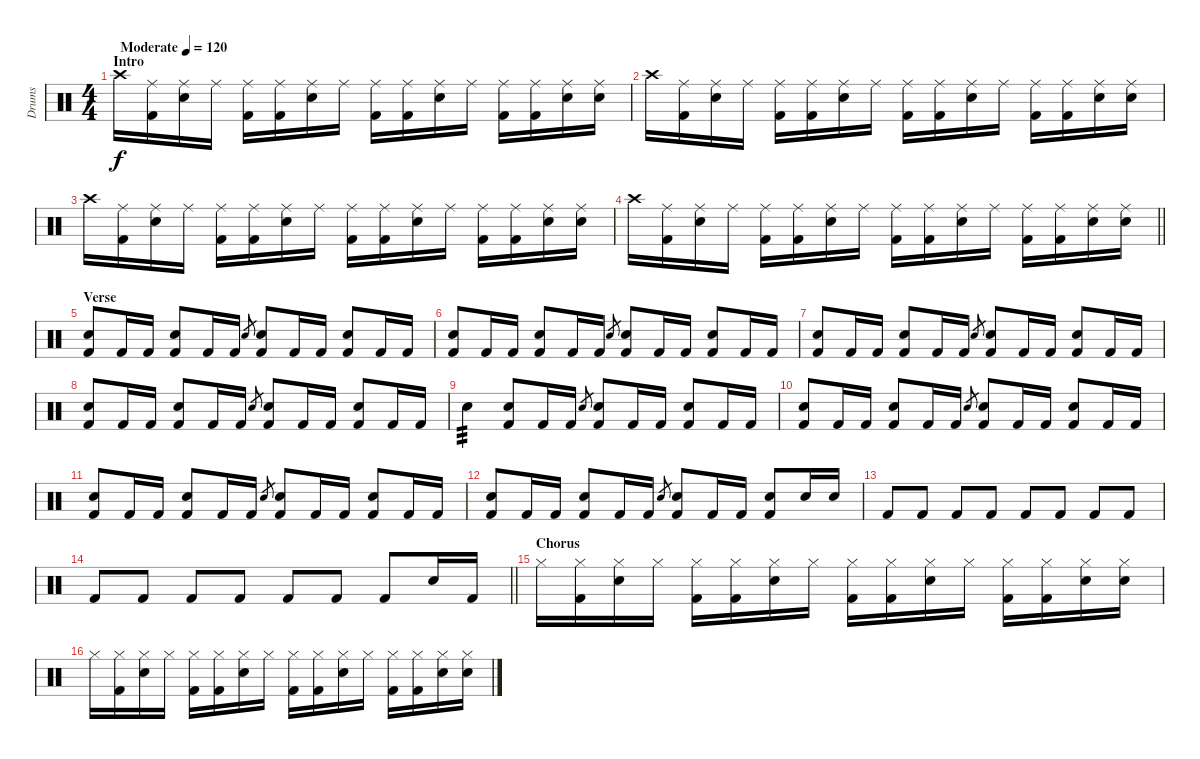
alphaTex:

\track ("Drums" "Drums") {instrument percussion}
\staff {score}
\articulation defaults
\ts (4 4)
\section ("" "Intro")
\tempo (120 "Moderate")
\clef neutral
\ks c "Crash high (hit)".16{dy f}
("Ride (middle)" "Kick (hit) 2").16 ("Ride (middle)" "Electric Snare (hit)").16 "Ride (middle)".16 ("Ride (middle)" "Kick (hit) 2").16 ("Ride (middle)" "Kick (hit) 2").16 ("Ride (middle)" "Electric Snare (hit)").16 "Ride (middle)".16 ("Ride (middle)" "Kick (hit) 2").16 ("Ride (middle)" "Kick (hit) 2").16 ("Ride (middle)" "Electric Snare (hit)").16 "Ride (middle)".16 ("Ride (middle)" "Kick (hit) 2").16 ("Ride (middle)" "Kick (hit) 2").16 ("Ride (middle)" "Electric Snare (hit)").16 ("Ride (middle)" "Electric Snare (hit)").16 |
"Crash high (hit)".16 ("Ride (middle)" "Kick (hit) 2").16 ("Ride (middle)" "Electric Snare (hit)").16 "Ride (middle)".16 ("Ride (middle)" "Kick (hit) 2").16 ("Ride (middle)" "Kick (hit) 2").16 ("Ride (middle)" "Electric Snare (hit)").16 "Ride (middle)".16 ("Ride (middle)" "Kick (hit) 2").16 ("Ride (middle)" "Kick (hit) 2").16 ("Ride (middle)" "Electric Snare (hit)").16 "Ride (middle)".16 ("Ride (middle)" "Kick (hit) 2").16 ("Ride (middle)" "Kick (hit) 2").16 ("Ride (middle)" "Electric Snare (hit)").16 ("Ride (middle)" "Electric Snare (hit)").16 |
"Crash high (hit)".16 ("Ride (middle)" "Kick (hit) 2").16 ("Ride (middle)" "Electric Snare (hit)").16 "Ride (middle)".16 ("Ride (middle)" "Kick (hit) 2").16 ("Ride (middle)" "Kick (hit) 2").16 ("Ride (middle)" "Electric Snare (hit)").16 "Ride (middle)".16 ("Ride (middle)" "Kick (hit) 2").16 ("Ride (middle)" "Kick (hit) 2").16 ("Ride (middle)" "Electric Snare (hit)").16 "Ride (middle)".16 ("Ride (middle)" "Kick (hit) 2").16 ("Ride (middle)" "Kick (hit) 2").16 ("Ride (middle)" "Electric Snare (hit)").16 ("Ride (middle)" "Electric Snare (hit)").16 |
\barLineRight lightlight "Crash high (hit)".16
("Ride (middle)" "Kick (hit) 2").16 ("Ride (middle)" "Electric Snare (hit)").16 "Ride (middle)".16 ("Ride (middle)" "Kick (hit) 2").16 ("Ride (middle)" "Kick (hit) 2").16 ("Ride (middle)" "Electric Snare (hit)").16 "Ride (middle)".16 ("Ride (middle)" "Kick (hit) 2").16 ("Ride (middle)" "Kick (hit) 2").16 ("Ride (middle)" "Electric Snare (hit)").16 "Ride (middle)".16 ("Ride (middle)" "Kick (hit) 2").16 ("Ride (middle)" "Kick (hit) 2").16 ("Ride (middle)" "Electric Snare (hit)").16 ("Ride (middle)" "Electric Snare (hit)").16 |
\section ("" "Verse")
("Electric Snare (hit)" "Kick (hit) 2").8 "Kick (hit) 2".16 "Kick (hit) 2".16 ("Electric Snare (hit)" "Kick (hit) 2").8 "Kick (hit) 2".16 "Kick (hit) 2".16 "Electric Snare (hit)".8{gr} ("Electric Snare (hit)" "Kick (hit) 2").8 "Kick (hit) 2".16 "Kick (hit) 2".16 ("Electric Snare (hit)" "Kick (hit) 2").8 "Kick (hit) 2".16 "Kick (hit) 2".16 |
("Electric Snare (hit)" "Kick (hit) 2").8 "Kick (hit) 2".16 "Kick (hit) 2".16 ("Electric Snare (hit)" "Kick (hit) 2").8 "Kick (hit) 2".16 "Kick (hit) 2".16 "Electric Snare (hit)".8{gr} ("Electric Snare (hit)" "Kick (hit) 2").8 "Kick (hit) 2".16 "Kick (hit) 2".16 ("Electric Snare (hit)" "Kick (hit) 2").8 "Kick (hit) 2".16 "Kick (hit) 2".16 |
("Electric Snare (hit)" "Kick (hit) 2").8 "Kick (hit) 2".16 "Kick (hit) 2".16 ("Electric Snare (hit)" "Kick (hit) 2").8 "Kick (hit) 2".16 "Kick (hit) 2".16 "Electric Snare (hit)".8{gr} ("Electric Snare (hit)" "Kick (hit) 2").8 "Kick (hit) 2".16 "Kick (hit) 2".16 ("Electric Snare (hit)" "Kick (hit) 2").8 "Kick (hit) 2".16 "Kick (hit) 2".16 |
("Electric Snare (hit)" "Kick (hit) 2").8 "Kick (hit) 2".16 "Kick (hit) 2".16 ("Electric Snare (hit)" "Kick (hit) 2").8 "Kick (hit) 2".16 "Kick (hit) 2".16 "Electric Snare (hit)".8{gr} ("Electric Snare (hit)" "Kick (hit) 2").8 "Kick (hit) 2".16 "Kick (hit) 2".16 ("Electric Snare (hit)" "Kick (hit) 2").8 "Kick (hit) 2".16 "Kick (hit) 2".16 |
"Electric Snare (hit)".4{tp 3} ("Electric Snare (hit)" "Kick (hit) 2").8 "Kick (hit) 2".16 "Kick (hit) 2".16 "Electric Snare (hit)".8{gr} ("Electric Snare (hit)" "Kick (hit) 2").8 "Kick (hit) 2".16 "Kick (hit) 2".16 ("Electric Snare (hit)" "Kick (hit) 2").8 "Kick (hit) 2".16 "Kick (hit) 2".16 |
("Electric Snare (hit)" "Kick (hit) 2").8 "Kick (hit) 2".16 "Kick (hit) 2".16 ("Electric Snare (hit)" "Kick (hit) 2").8 "Kick (hit) 2".16 "Kick (hit) 2".16 "Electric Snare (hit)".8{gr} ("Electric Snare (hit)" "Kick (hit) 2").8 "Kick (hit) 2".16 "Kick (hit) 2".16 ("Electric Snare (hit)" "Kick (hit) 2").8 "Kick (hit) 2".16 "Kick (hit) 2".16 |
("Electric Snare (hit)" "Kick (hit) 2").8 "Kick (hit) 2".16 "Kick (hit) 2".16 ("Electric Snare (hit)" "Kick (hit) 2").8 "Kick (hit) 2".16 "Kick (hit) 2".16 "Electric Snare (hit)".8{gr} ("Electric Snare (hit)" "Kick (hit) 2").8 "Kick (hit) 2".16 "Kick (hit) 2".16 ("Electric Snare (hit)" "Kick (hit) 2").8 "Kick (hit) 2".16 "Kick (hit) 2".16 |
("Electric Snare (hit)" "Kick (hit) 2").8 "Kick (hit) 2".16 "Kick (hit) 2".16 ("Electric Snare (hit)" "Kick (hit) 2").8 "Kick (hit) 2".16 "Kick (hit) 2".16 "Electric Snare (hit)".8{gr} ("Electric Snare (hit)" "Kick (hit) 2").8 "Kick (hit) 2".16 "Kick (hit) 2".16 ("Electric Snare (hit)" "Kick (hit) 2").8 "Snare (hit) 2".16 "Snare (hit) 2".16 |
"Kick (hit) 2".8 "Kick (hit) 2".8 "Kick (hit) 2".8 "Kick (hit) 2".8 "Kick (hit) 2".8 "Kick (hit) 2".8 "Kick (hit) 2".8 "Kick (hit) 2".8 |
\barLineRight lightlight "Kick (hit) 2".8 "Kick (hit) 2".8 "Kick (hit) 2".8 "Kick (hit) 2".8 "Kick (hit) 2".8 "Kick (hit) 2".8 "Kick (hit) 2".8 "Snare (hit) 2".16 "Kick (hit) 2".16
|
\section ("" "Chorus")
"Hi-Hat (closed)".16 ("Hi-Hat (closed)" "Kick (hit) 2").16 ("Hi-Hat (closed)" "Electric Snare (hit)").16 "Hi-Hat (closed)".16 ("Hi-Hat (closed)" "Kick (hit) 2").16 ("Hi-Hat (closed)" "Kick (hit) 2").16 ("Hi-Hat (closed)" "Electric Snare (hit)").16 "Hi-Hat (closed)".16 ("Hi-Hat (closed)" "Kick (hit) 2").16 ("Hi-Hat (closed)" "Kick (hit) 2").16 ("Hi-Hat (closed)" "Electric Snare (hit)").16 "Hi-Hat (closed)".16 ("Hi-Hat (closed)" "Kick (hit) 2").16 ("Hi-Hat (closed)" "Kick (hit) 2").16 ("Hi-Hat (closed)" "Electric Snare (hit)").16 ("Hi-Hat (closed)" "Electric Snare (hit)").16 |
"Hi-Hat (closed)".16 ("Hi-Hat (closed)" "Kick (hit) 2").16 ("Hi-Hat (closed)" "Electric Snare (hit)").16 "Hi-Hat (closed)".16 ("Hi-Hat (closed)" "Kick (hit) 2").16 ("Hi-Hat (closed)" "Kick (hit) 2").16 ("Hi-Hat (closed)" "Electric Snare (hit)").16 "Hi-Hat (closed)".16 ("Hi-Hat (closed)" "Kick (hit) 2").16 ("Hi-Hat (closed)" "Kick (hit) 2").16 ("Hi-Hat (closed)" "Electric Snare (hit)").16 "Hi-Hat (closed)".16 ("Hi-Hat (closed)" "Kick (hit) 2").16 ("Hi-Hat (closed)" "Kick (hit) 2").16 ("Hi-Hat (closed)" "Electric Snare (hit)").16 ("Hi-Hat (closed)" "Electric Snare (hit)").16
